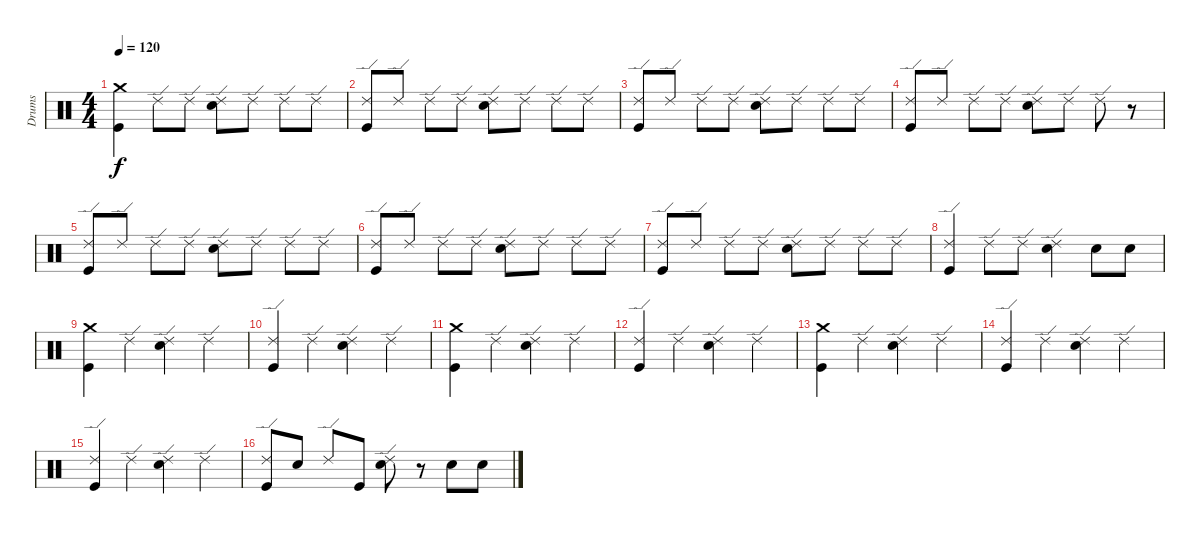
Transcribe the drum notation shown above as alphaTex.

\track ("Drums" "Drums") {instrument percussion}
\staff {score}
\articulation defaults
\ts (4 4)
\tempo 120
\clef neutral
\ks c
("Crash medium (hit)" "Kick (hit)").4{dy f} "Ride (edge) 2".8 "Ride (edge) 2".8 ("Ride (edge) 2" "Snare (hit) 2").8 "Ride (edge) 2".8 "Ride (edge) 2".8 "Ride (edge) 2".8 |
("Ride (edge) 2" "Kick (hit)").8 "Ride (edge) 2".8 "Ride (edge) 2".8 "Ride (edge) 2".8 ("Ride (edge) 2" "Snare (hit) 2").8 "Ride (edge) 2".8 "Ride (edge) 2".8 "Ride (edge) 2".8 |
("Kick (hit)" "Ride (edge) 2").8 "Ride (edge) 2".8 "Ride (edge) 2".8 "Ride (edge) 2".8 ("Snare (hit) 2" "Ride (edge) 2").8 "Ride (edge) 2".8 "Ride (edge) 2".8 "Ride (edge) 2".8 |
("Ride (edge) 2" "Kick (hit)").8 "Ride (edge) 2".8 "Ride (edge) 2".8 "Ride (edge) 2".8 ("Ride (edge) 2" "Snare (hit) 2").8 "Ride (edge) 2".8 "Ride (edge) 2".8 r.8 |
("Kick (hit)" "Ride (edge) 2").8 "Ride (edge) 2".8 "Ride (edge) 2".8 "Ride (edge) 2".8 ("Snare (hit) 2" "Ride (edge) 2").8 "Ride (edge) 2".8 "Ride (edge) 2".8 "Ride (edge) 2".8 |
("Kick (hit)" "Ride (edge) 2").8 "Ride (edge) 2".8 "Ride (edge) 2".8 "Ride (edge) 2".8 ("Snare (hit) 2" "Ride (edge) 2").8 "Ride (edge) 2".8 "Ride (edge) 2".8 "Ride (edge) 2".8 |
("Kick (hit)" "Ride (edge) 2").8 "Ride (edge) 2".8 "Ride (edge) 2".8 "Ride (edge) 2".8 ("Snare (hit) 2" "Ride (edge) 2").8 "Ride (edge) 2".8 "Ride (edge) 2".8 "Ride (edge) 2".8 |
("Ride (edge) 2" "Kick (hit)").4 "Ride (edge) 2".8 "Ride (edge) 2".8 ("Ride (edge) 2" "Snare (hit) 2").4 "Snare (hit) 2".8 "Snare (hit) 2".8 |
("Crash medium (hit)" "Kick (hit)").4 "Ride (edge) 2".4 ("Snare (hit) 2" "Ride (edge) 2").4 "Ride (edge) 2".4 |
("Ride (edge) 2" "Kick (hit)").4 "Ride (edge) 2".4 ("Ride (edge) 2" "Snare (hit) 2").4 "Ride (edge) 2".4 |
("Crash medium (hit)" "Kick (hit)").4 "Ride (edge) 2".4 ("Snare (hit) 2" "Ride (edge) 2").4 "Ride (edge) 2".4 |
("Ride (edge) 2" "Kick (hit)").4 "Ride (edge) 2".4 ("Ride (edge) 2" "Snare (hit) 2").4 "Ride (edge) 2".4 |
("Crash medium (hit)" "Kick (hit)").4 "Ride (edge) 2".4 ("Snare (hit) 2" "Ride (edge) 2").4 "Ride (edge) 2".4 |
("Ride (edge) 2" "Kick (hit)").4 "Ride (edge) 2".4 ("Ride (edge) 2" "Snare (hit) 2").4 "Ride (edge) 2".4 |
("Ride (edge) 2" "Kick (hit)").4 "Ride (edge) 2".4 ("Ride (edge) 2" "Snare (hit) 2").4 "Ride (edge) 2".4 |
("Ride (edge) 2" "Kick (hit)").8 "Snare (hit) 2".8 "Ride (edge) 2".8 "Kick (hit)".8 ("Ride (edge) 2" "Snare (hit) 2").8 r.8 "Snare (hit) 2".8 "Snare (hit) 2".8
